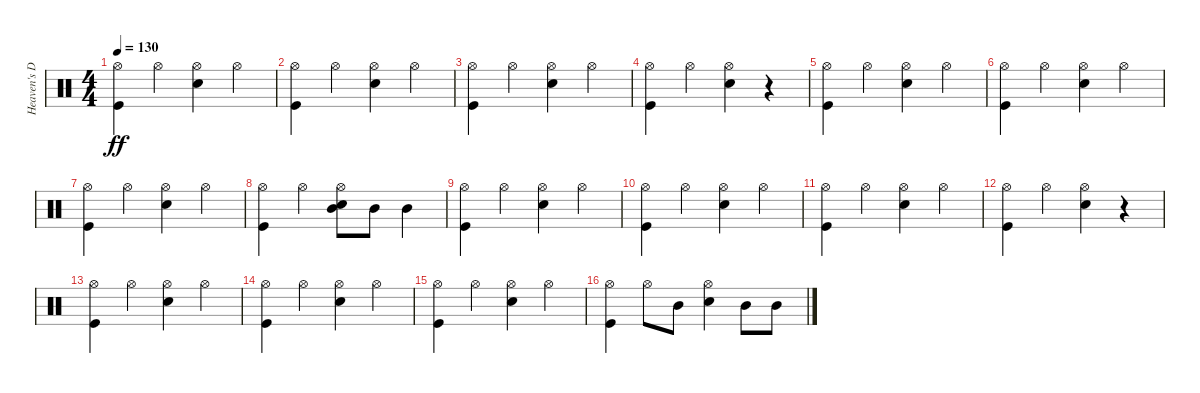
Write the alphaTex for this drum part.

\track ("Heaven's Door" "Heaven's D") {instrument percussion}
\staff {score}
\articulation defaults
\ts (4 4)
\tempo 130
\clef neutral
\ks c
("Hi-Hat (open)" "Kick (hit)").4{dy ff} "Hi-Hat (open)".4 ("Hi-Hat (open)" "Electric Snare (hit)").4 "Hi-Hat (open)".4 |
("Hi-Hat (open)" "Kick (hit)").4 "Hi-Hat (open)".4 ("Electric Snare (hit)" "Hi-Hat (open)").4 "Hi-Hat (open)".4 |
("Kick (hit)" "Hi-Hat (open)").4 "Hi-Hat (open)".4 ("Electric Snare (hit)" "Hi-Hat (open)").4 "Hi-Hat (open)".4 |
("Hi-Hat (open)" "Kick (hit)").4 "Hi-Hat (open)".4 ("Electric Snare (hit)" "Hi-Hat (open)").4 r.4 |
("Hi-Hat (open)" "Kick (hit)").4 "Hi-Hat (open)".4 ("Hi-Hat (open)" "Electric Snare (hit)").4 "Hi-Hat (open)".4 |
("Hi-Hat (open)" "Kick (hit)").4 "Hi-Hat (open)".4 ("Electric Snare (hit)" "Hi-Hat (open)").4 "Hi-Hat (open)".4 |
("Kick (hit)" "Hi-Hat (open)").4 "Hi-Hat (open)".4 ("Electric Snare (hit)" "Hi-Hat (open)").4 "Hi-Hat (open)".4 |
("Hi-Hat (open)" "Kick (hit)").4 "Hi-Hat (open)".4 ("Mid Tom (hit)" "Electric Snare (hit)" "Hi-Hat (open)").8 "Mid Tom (hit)".8 "Mid Tom (hit)".4 |
("Hi-Hat (open)" "Kick (hit)").4 "Hi-Hat (open)".4 ("Hi-Hat (open)" "Electric Snare (hit)").4 "Hi-Hat (open)".4 |
("Hi-Hat (open)" "Kick (hit)").4 "Hi-Hat (open)".4 ("Electric Snare (hit)" "Hi-Hat (open)").4 "Hi-Hat (open)".4 |
("Kick (hit)" "Hi-Hat (open)").4 "Hi-Hat (open)".4 ("Electric Snare (hit)" "Hi-Hat (open)").4 "Hi-Hat (open)".4 |
("Hi-Hat (open)" "Kick (hit)").4 "Hi-Hat (open)".4 ("Electric Snare (hit)" "Hi-Hat (open)").4 r.4 |
("Hi-Hat (open)" "Kick (hit)").4 "Hi-Hat (open)".4 ("Hi-Hat (open)" "Electric Snare (hit)").4 "Hi-Hat (open)".4 |
("Hi-Hat (open)" "Kick (hit)").4 "Hi-Hat (open)".4 ("Electric Snare (hit)" "Hi-Hat (open)").4 "Hi-Hat (open)".4 |
("Kick (hit)" "Hi-Hat (open)").4 "Hi-Hat (open)".4 ("Electric Snare (hit)" "Hi-Hat (open)").4 "Hi-Hat (open)".4 |
("Hi-Hat (open)" "Kick (hit)").4 "Hi-Hat (open)".8 "Mid Tom (hit)".8 ("Electric Snare (hit)" "Hi-Hat (open)").4 "Mid Tom (hit)".8 "Mid Tom (hit)".8
